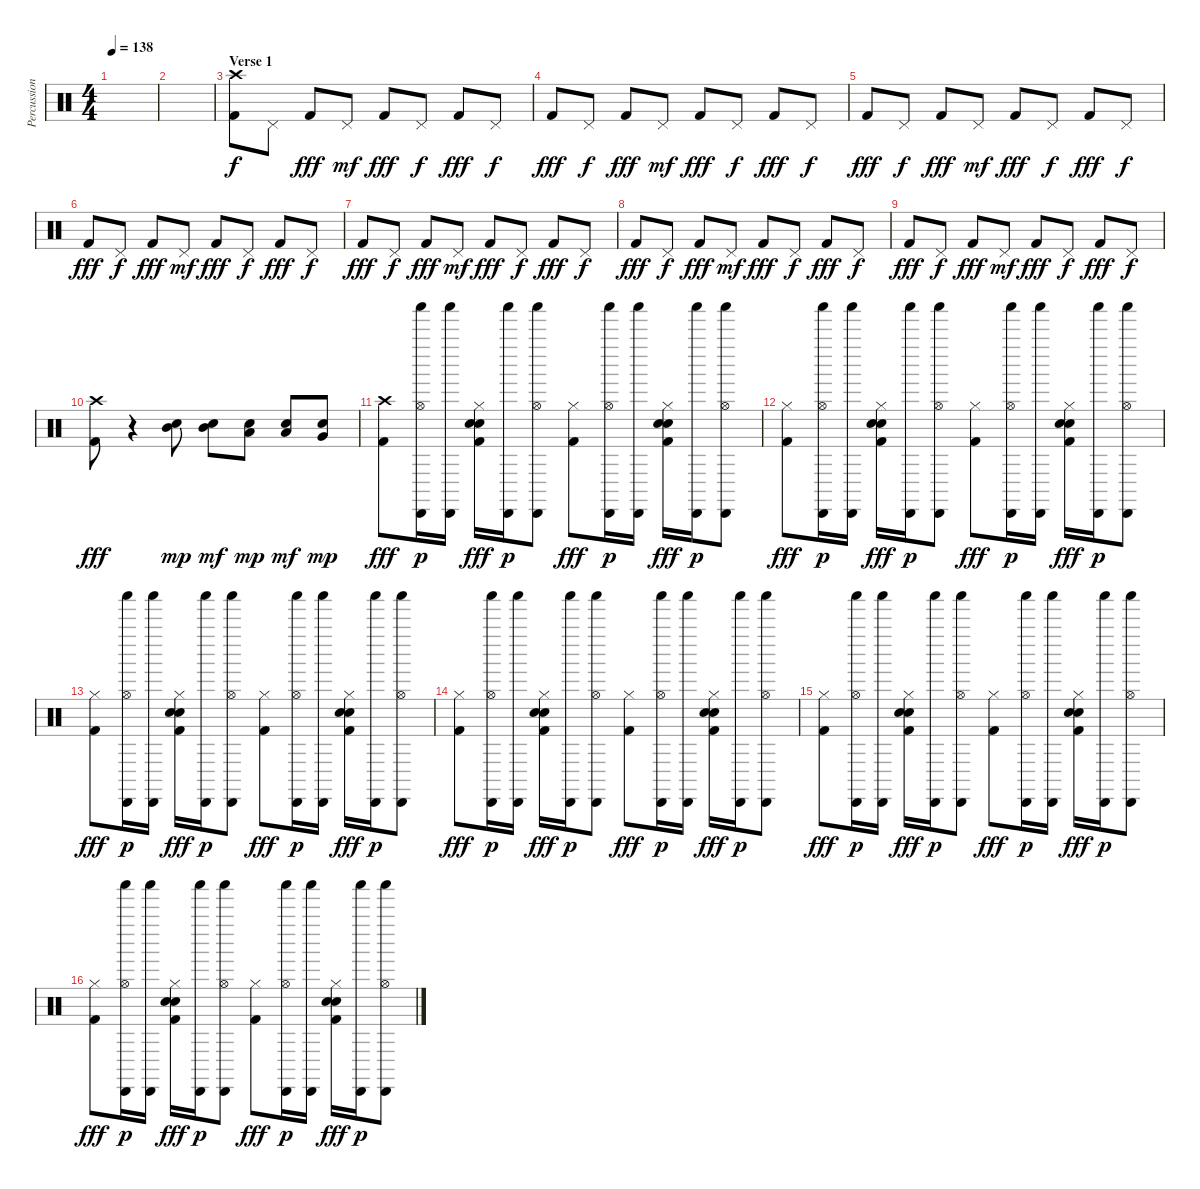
\track ("Percussion" "Percussion") {instrument percussion}
\staff {score}
\articulation defaults
\ts (4 4)
\tempo 138
\clef neutral
\ks c
|
|
\section ("" "Verse 1")
("Crash high (hit)" "Kick (hit) 2").8 "Pedal Hi-Hat (hit)".8{dy f} "Kick (hit) 2".8{dy fff} "Pedal Hi-Hat (hit)".8{dy mf} "Kick (hit) 2".8{dy fff} "Pedal Hi-Hat (hit)".8{dy f} "Kick (hit) 2".8{dy fff} "Pedal Hi-Hat (hit)".8{dy f} |
"Kick (hit) 2".8{dy fff} "Pedal Hi-Hat (hit)".8{dy f} "Kick (hit) 2".8{dy fff} "Pedal Hi-Hat (hit)".8{dy mf} "Kick (hit) 2".8{dy fff} "Pedal Hi-Hat (hit)".8{dy f} "Kick (hit) 2".8{dy fff} "Pedal Hi-Hat (hit)".8{dy f} |
"Kick (hit) 2".8{dy fff} "Pedal Hi-Hat (hit)".8{dy f} "Kick (hit) 2".8{dy fff} "Pedal Hi-Hat (hit)".8{dy mf} "Kick (hit) 2".8{dy fff} "Pedal Hi-Hat (hit)".8{dy f} "Kick (hit) 2".8{dy fff} "Pedal Hi-Hat (hit)".8{dy f} |
"Kick (hit) 2".8{dy fff} "Pedal Hi-Hat (hit)".8{dy f} "Kick (hit) 2".8{dy fff} "Pedal Hi-Hat (hit)".8{dy mf} "Kick (hit) 2".8{dy fff} "Pedal Hi-Hat (hit)".8{dy f} "Kick (hit) 2".8{dy fff} "Pedal Hi-Hat (hit)".8{dy f} |
"Kick (hit) 2".8{dy fff} "Pedal Hi-Hat (hit)".8{dy f} "Kick (hit) 2".8{dy fff} "Pedal Hi-Hat (hit)".8{dy mf} "Kick (hit) 2".8{dy fff} "Pedal Hi-Hat (hit)".8{dy f} "Kick (hit) 2".8{dy fff} "Pedal Hi-Hat (hit)".8{dy f} |
"Kick (hit) 2".8{dy fff} "Pedal Hi-Hat (hit)".8{dy f} "Kick (hit) 2".8{dy fff} "Pedal Hi-Hat (hit)".8{dy mf} "Kick (hit) 2".8{dy fff} "Pedal Hi-Hat (hit)".8{dy f} "Kick (hit) 2".8{dy fff} "Pedal Hi-Hat (hit)".8{dy f} |
"Kick (hit) 2".8{dy fff} "Pedal Hi-Hat (hit)".8{dy f} "Kick (hit) 2".8{dy fff} "Pedal Hi-Hat (hit)".8{dy mf} "Kick (hit) 2".8{dy fff} "Pedal Hi-Hat (hit)".8{dy f} "Kick (hit) 2".8{dy fff} "Pedal Hi-Hat (hit)".8{dy f} |
("Kick (hit) 2" "Crash high (hit)").8{dy fff} r.4 ("Snare (hit) 2" "Mid Tom (hit)").8{dy mp} ("Snare (hit) 2" "Mid Tom (hit)").8{dy mf} ("Snare (hit) 2" "Low Tom (hit)").8{dy mp} ("Snare (hit) 2" "Low Tom (hit)").8{dy mf} ("Snare (hit) 2" "Very Low Tom (hit)").8{dy mp} |
("Crash high (hit)" "Kick (hit) 2").8{dy fff} ("Cabasa (hit)" "Hi-Hat (open)" "Shaker (hit)").16{dy p} ("Cabasa (hit)" "Shaker (hit)").16 ("Hi-Hat (closed)" "Snare (hit) 2" "Hand Clap (hit)" "Kick (hit) 2").16{dy fff} ("Cabasa (hit)" "Shaker (hit)").16{dy p} ("Cabasa (hit)" "Hi-Hat (open)" "Shaker (hit)").8 ("Hi-Hat (closed)" "Kick (hit) 2").8{dy fff} ("Cabasa (hit)" "Hi-Hat (open)" "Shaker (hit)").16{dy p} ("Cabasa (hit)" "Shaker (hit)").16 ("Hi-Hat (closed)" "Snare (hit) 2" "Hand Clap (hit)" "Kick (hit) 2").16{dy fff} ("Cabasa (hit)" "Shaker (hit)").16{dy p} ("Cabasa (hit)" "Hi-Hat (open)" "Shaker (hit)").8 |
("Hi-Hat (closed)" "Kick (hit) 2").8{dy fff} ("Cabasa (hit)" "Hi-Hat (open)" "Shaker (hit)").16{dy p} ("Cabasa (hit)" "Shaker (hit)").16 ("Hi-Hat (closed)" "Snare (hit) 2" "Hand Clap (hit)" "Kick (hit) 2").16{dy fff} ("Cabasa (hit)" "Shaker (hit)").16{dy p} ("Cabasa (hit)" "Hi-Hat (open)" "Shaker (hit)").8 ("Hi-Hat (closed)" "Kick (hit) 2").8{dy fff} ("Cabasa (hit)" "Hi-Hat (open)" "Shaker (hit)").16{dy p} ("Cabasa (hit)" "Shaker (hit)").16 ("Hi-Hat (closed)" "Snare (hit) 2" "Hand Clap (hit)" "Kick (hit) 2").16{dy fff} ("Cabasa (hit)" "Shaker (hit)").16{dy p} ("Cabasa (hit)" "Hi-Hat (open)" "Shaker (hit)").8 |
("Hi-Hat (closed)" "Kick (hit) 2").8{dy fff} ("Cabasa (hit)" "Hi-Hat (open)" "Shaker (hit)").16{dy p} ("Cabasa (hit)" "Shaker (hit)").16 ("Hi-Hat (closed)" "Snare (hit) 2" "Hand Clap (hit)" "Kick (hit) 2").16{dy fff} ("Cabasa (hit)" "Shaker (hit)").16{dy p} ("Cabasa (hit)" "Hi-Hat (open)" "Shaker (hit)").8 ("Hi-Hat (closed)" "Kick (hit) 2").8{dy fff} ("Cabasa (hit)" "Hi-Hat (open)" "Shaker (hit)").16{dy p} ("Cabasa (hit)" "Shaker (hit)").16 ("Hi-Hat (closed)" "Snare (hit) 2" "Hand Clap (hit)" "Kick (hit) 2").16{dy fff} ("Cabasa (hit)" "Shaker (hit)").16{dy p} ("Cabasa (hit)" "Hi-Hat (open)" "Shaker (hit)").8 |
("Hi-Hat (closed)" "Kick (hit) 2").8{dy fff} ("Cabasa (hit)" "Hi-Hat (open)" "Shaker (hit)").16{dy p} ("Cabasa (hit)" "Shaker (hit)").16 ("Hi-Hat (closed)" "Snare (hit) 2" "Hand Clap (hit)" "Kick (hit) 2").16{dy fff} ("Cabasa (hit)" "Shaker (hit)").16{dy p} ("Cabasa (hit)" "Hi-Hat (open)" "Shaker (hit)").8 ("Hi-Hat (closed)" "Kick (hit) 2").8{dy fff} ("Cabasa (hit)" "Hi-Hat (open)" "Shaker (hit)").16{dy p} ("Cabasa (hit)" "Shaker (hit)").16 ("Hi-Hat (closed)" "Snare (hit) 2" "Hand Clap (hit)" "Kick (hit) 2").16{dy fff} ("Cabasa (hit)" "Shaker (hit)").16{dy p} ("Cabasa (hit)" "Hi-Hat (open)" "Shaker (hit)").8 |
("Hi-Hat (closed)" "Kick (hit) 2").8{dy fff} ("Cabasa (hit)" "Hi-Hat (open)" "Shaker (hit)").16{dy p} ("Cabasa (hit)" "Shaker (hit)").16 ("Hi-Hat (closed)" "Snare (hit) 2" "Hand Clap (hit)" "Kick (hit) 2").16{dy fff} ("Cabasa (hit)" "Shaker (hit)").16{dy p} ("Cabasa (hit)" "Hi-Hat (open)" "Shaker (hit)").8 ("Hi-Hat (closed)" "Kick (hit) 2").8{dy fff} ("Cabasa (hit)" "Hi-Hat (open)" "Shaker (hit)").16{dy p} ("Cabasa (hit)" "Shaker (hit)").16 ("Hi-Hat (closed)" "Snare (hit) 2" "Hand Clap (hit)" "Kick (hit) 2").16{dy fff} ("Cabasa (hit)" "Shaker (hit)").16{dy p} ("Cabasa (hit)" "Hi-Hat (open)" "Shaker (hit)").8 |
("Hi-Hat (closed)" "Kick (hit) 2").8{dy fff} ("Cabasa (hit)" "Hi-Hat (open)" "Shaker (hit)").16{dy p} ("Cabasa (hit)" "Shaker (hit)").16 ("Hi-Hat (closed)" "Snare (hit) 2" "Hand Clap (hit)" "Kick (hit) 2").16{dy fff} ("Cabasa (hit)" "Shaker (hit)").16{dy p} ("Cabasa (hit)" "Hi-Hat (open)" "Shaker (hit)").8 ("Hi-Hat (closed)" "Kick (hit) 2").8{dy fff} ("Cabasa (hit)" "Hi-Hat (open)" "Shaker (hit)").16{dy p} ("Cabasa (hit)" "Shaker (hit)").16 ("Hi-Hat (closed)" "Snare (hit) 2" "Hand Clap (hit)" "Kick (hit) 2").16{dy fff} ("Cabasa (hit)" "Shaker (hit)").16{dy p} ("Cabasa (hit)" "Hi-Hat (open)" "Shaker (hit)").8
